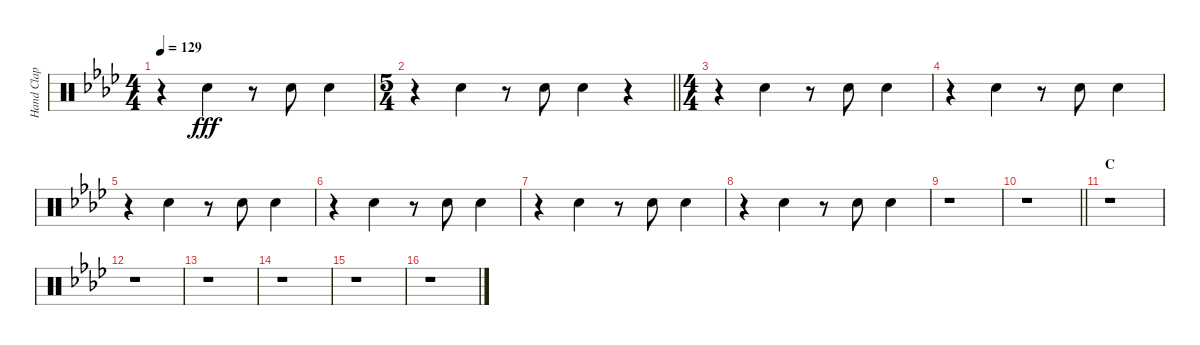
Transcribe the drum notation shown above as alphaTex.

\track ("Hand Clap" "Hand Clap") {instrument percussion}
\staff {score}
\articulation defaults
\ts (4 4)
\tempo 129
\clef neutral
\ks ab
r.4{dy fff} "Hand Clap (hit)".4 r.8 "Hand Clap (hit)".8 "Hand Clap (hit)".4 |
\ts (5 4)
\barLineRight lightlight
r.4 "Hand Clap (hit)".4 r.8 "Hand Clap (hit)".8 "Hand Clap (hit)".4 r.4 |
\ts (4 4)
r.4 "Hand Clap (hit)".4 r.8 "Hand Clap (hit)".8 "Hand Clap (hit)".4 |
r.4 "Hand Clap (hit)".4 r.8 "Hand Clap (hit)".8 "Hand Clap (hit)".4 |
r.4 "Hand Clap (hit)".4 r.8 "Hand Clap (hit)".8 "Hand Clap (hit)".4 |
r.4 "Hand Clap (hit)".4 r.8 "Hand Clap (hit)".8 "Hand Clap (hit)".4 |
r.4 "Hand Clap (hit)".4 r.8 "Hand Clap (hit)".8 "Hand Clap (hit)".4 |
r.4 "Hand Clap (hit)".4 r.8 "Hand Clap (hit)".8 "Hand Clap (hit)".4 |
r.1 |
\barLineRight lightlight
r.1 |
\section ("" "C")
r.1 |
r.1 |
r.1 |
r.1 |
r.1 |
r.1
